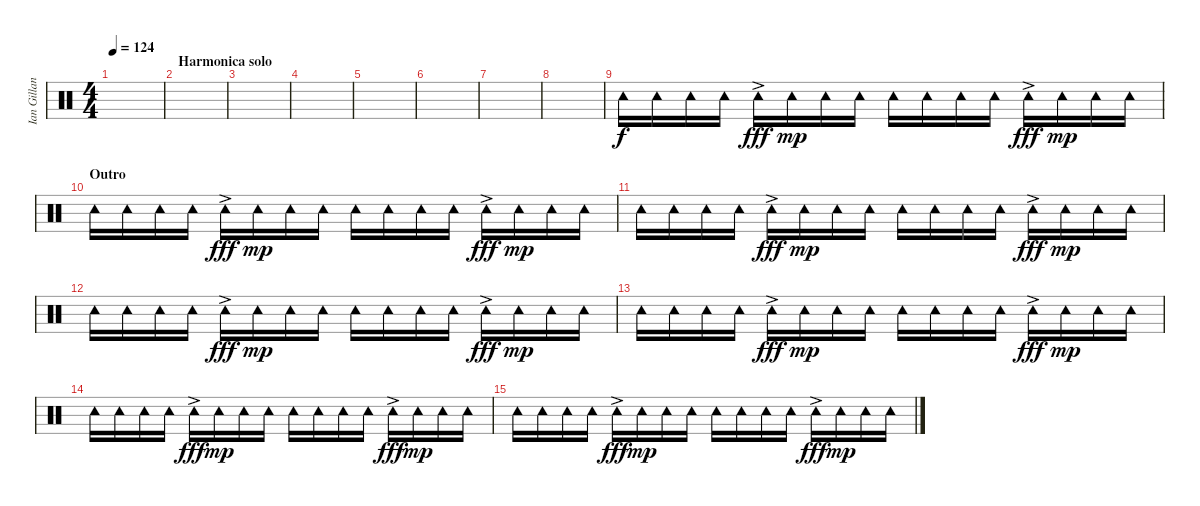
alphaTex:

\track ("Ian Gillan (percussions)" "Ian Gillan") {instrument percussion}
\staff {score}
\articulation defaults
\ts (4 4)
\tempo 124
\clef neutral
\ks c
|
\section ("" "Harmonica solo")
|
|
|
|
|
|
|
"Tambourine (hit)".16 "Tambourine (hit)".16 "Tambourine (hit)".16 "Tambourine (hit)".16 "Tambourine (hit)"{ac}.16{dy fff} "Tambourine (hit)".16{dy mp} "Tambourine (hit)".16 "Tambourine (hit)".16 "Tambourine (hit)".16 "Tambourine (hit)".16 "Tambourine (hit)".16 "Tambourine (hit)".16 "Tambourine (hit)"{ac}.16{dy fff} "Tambourine (hit)".16{dy mp} "Tambourine (hit)".16 "Tambourine (hit)".16 |
\section ("" "Outro")
"Tambourine (hit)".16 "Tambourine (hit)".16 "Tambourine (hit)".16 "Tambourine (hit)".16 "Tambourine (hit)"{ac}.16{dy fff} "Tambourine (hit)".16{dy mp} "Tambourine (hit)".16 "Tambourine (hit)".16 "Tambourine (hit)".16 "Tambourine (hit)".16 "Tambourine (hit)".16 "Tambourine (hit)".16 "Tambourine (hit)"{ac}.16{dy fff} "Tambourine (hit)".16{dy mp} "Tambourine (hit)".16 "Tambourine (hit)".16 |
"Tambourine (hit)".16 "Tambourine (hit)".16 "Tambourine (hit)".16 "Tambourine (hit)".16 "Tambourine (hit)"{ac}.16{dy fff} "Tambourine (hit)".16{dy mp} "Tambourine (hit)".16 "Tambourine (hit)".16 "Tambourine (hit)".16 "Tambourine (hit)".16 "Tambourine (hit)".16 "Tambourine (hit)".16 "Tambourine (hit)"{ac}.16{dy fff} "Tambourine (hit)".16{dy mp} "Tambourine (hit)".16 "Tambourine (hit)".16 |
"Tambourine (hit)".16 "Tambourine (hit)".16 "Tambourine (hit)".16 "Tambourine (hit)".16 "Tambourine (hit)"{ac}.16{dy fff} "Tambourine (hit)".16{dy mp} "Tambourine (hit)".16 "Tambourine (hit)".16 "Tambourine (hit)".16 "Tambourine (hit)".16 "Tambourine (hit)".16 "Tambourine (hit)".16 "Tambourine (hit)"{ac}.16{dy fff} "Tambourine (hit)".16{dy mp} "Tambourine (hit)".16 "Tambourine (hit)".16 |
"Tambourine (hit)".16 "Tambourine (hit)".16 "Tambourine (hit)".16 "Tambourine (hit)".16 "Tambourine (hit)"{ac}.16{dy fff} "Tambourine (hit)".16{dy mp} "Tambourine (hit)".16 "Tambourine (hit)".16 "Tambourine (hit)".16 "Tambourine (hit)".16 "Tambourine (hit)".16 "Tambourine (hit)".16 "Tambourine (hit)"{ac}.16{dy fff} "Tambourine (hit)".16{dy mp} "Tambourine (hit)".16 "Tambourine (hit)".16 |
"Tambourine (hit)".16 "Tambourine (hit)".16 "Tambourine (hit)".16 "Tambourine (hit)".16 "Tambourine (hit)"{ac}.16{dy fff} "Tambourine (hit)".16{dy mp} "Tambourine (hit)".16 "Tambourine (hit)".16 "Tambourine (hit)".16 "Tambourine (hit)".16 "Tambourine (hit)".16 "Tambourine (hit)".16 "Tambourine (hit)"{ac}.16{dy fff} "Tambourine (hit)".16{dy mp} "Tambourine (hit)".16 "Tambourine (hit)".16 |
"Tambourine (hit)".16 "Tambourine (hit)".16 "Tambourine (hit)".16 "Tambourine (hit)".16 "Tambourine (hit)"{ac}.16{dy fff} "Tambourine (hit)".16{dy mp} "Tambourine (hit)".16 "Tambourine (hit)".16 "Tambourine (hit)".16 "Tambourine (hit)".16 "Tambourine (hit)".16 "Tambourine (hit)".16 "Tambourine (hit)"{ac}.16{dy fff} "Tambourine (hit)".16{dy mp} "Tambourine (hit)".16 "Tambourine (hit)".16
